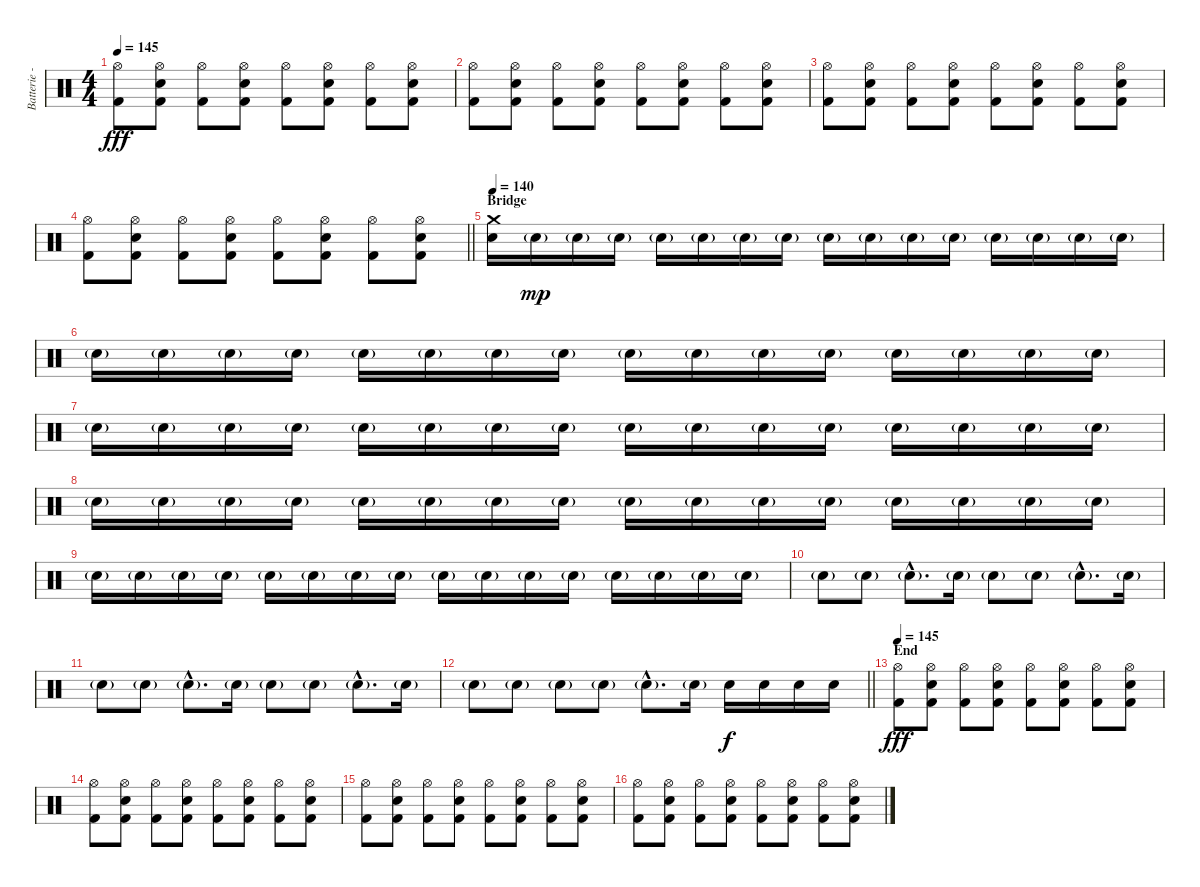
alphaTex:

\track ("Batterie - Larzon" "Batterie -") {instrument percussion}
\staff {score}
\articulation defaults
\ts (4 4)
\tempo 145
\clef neutral
\ks c
("Kick (hit) 2" "Hi-Hat (open)").8{dy fff} ("Kick (hit) 2" "Hi-Hat (open)" "Electric Snare (hit)").8 ("Kick (hit) 2" "Hi-Hat (open)").8 ("Kick (hit) 2" "Hi-Hat (open)" "Electric Snare (hit)").8 ("Kick (hit) 2" "Hi-Hat (open)").8 ("Kick (hit) 2" "Hi-Hat (open)" "Electric Snare (hit)").8 ("Kick (hit) 2" "Hi-Hat (open)").8 ("Kick (hit) 2" "Hi-Hat (open)" "Electric Snare (hit)").8 |
("Kick (hit) 2" "Hi-Hat (open)").8 ("Kick (hit) 2" "Hi-Hat (open)" "Electric Snare (hit)").8 ("Kick (hit) 2" "Hi-Hat (open)").8 ("Kick (hit) 2" "Hi-Hat (open)" "Electric Snare (hit)").8 ("Kick (hit) 2" "Hi-Hat (open)").8 ("Kick (hit) 2" "Hi-Hat (open)" "Electric Snare (hit)").8 ("Kick (hit) 2" "Hi-Hat (open)").8 ("Kick (hit) 2" "Hi-Hat (open)" "Electric Snare (hit)").8 |
("Kick (hit) 2" "Hi-Hat (open)").8 ("Kick (hit) 2" "Hi-Hat (open)" "Electric Snare (hit)").8 ("Kick (hit) 2" "Hi-Hat (open)").8 ("Kick (hit) 2" "Hi-Hat (open)" "Electric Snare (hit)").8 ("Kick (hit) 2" "Hi-Hat (open)").8 ("Kick (hit) 2" "Hi-Hat (open)" "Electric Snare (hit)").8 ("Kick (hit) 2" "Hi-Hat (open)").8 ("Kick (hit) 2" "Hi-Hat (open)" "Electric Snare (hit)").8 |
\barLineRight lightlight
("Kick (hit) 2" "Hi-Hat (open)").8 ("Kick (hit) 2" "Hi-Hat (open)" "Electric Snare (hit)").8 ("Kick (hit) 2" "Hi-Hat (open)").8 ("Kick (hit) 2" "Hi-Hat (open)" "Electric Snare (hit)").8 ("Kick (hit) 2" "Hi-Hat (open)").8 ("Kick (hit) 2" "Hi-Hat (open)" "Electric Snare (hit)").8 ("Kick (hit) 2" "Hi-Hat (open)").8 ("Kick (hit) 2" "Hi-Hat (open)" "Electric Snare (hit)").8 |
\section ("" "Bridge")
\tempo 140
("Crash medium (hit)" "Electric Snare (hit)").16 "Electric Snare (hit)"{g}.16{dy mp} "Electric Snare (hit)"{g}.16 "Electric Snare (hit)"{g}.16 "Electric Snare (hit)"{g}.16 "Electric Snare (hit)"{g}.16 "Electric Snare (hit)"{g}.16 "Electric Snare (hit)"{g}.16 "Electric Snare (hit)"{g}.16 "Electric Snare (hit)"{g}.16 "Electric Snare (hit)"{g}.16 "Electric Snare (hit)"{g}.16 "Electric Snare (hit)"{g}.16 "Electric Snare (hit)"{g}.16 "Electric Snare (hit)"{g}.16 "Electric Snare (hit)"{g}.16 |
"Electric Snare (hit)"{g}.16 "Electric Snare (hit)"{g}.16 "Electric Snare (hit)"{g}.16 "Electric Snare (hit)"{g}.16 "Electric Snare (hit)"{g}.16 "Electric Snare (hit)"{g}.16 "Electric Snare (hit)"{g}.16 "Electric Snare (hit)"{g}.16 "Electric Snare (hit)"{g}.16 "Electric Snare (hit)"{g}.16 "Electric Snare (hit)"{g}.16 "Electric Snare (hit)"{g}.16 "Electric Snare (hit)"{g}.16 "Electric Snare (hit)"{g}.16 "Electric Snare (hit)"{g}.16 "Electric Snare (hit)"{g}.16 |
"Electric Snare (hit)"{g}.16 "Electric Snare (hit)"{g}.16 "Electric Snare (hit)"{g}.16 "Electric Snare (hit)"{g}.16 "Electric Snare (hit)"{g}.16 "Electric Snare (hit)"{g}.16 "Electric Snare (hit)"{g}.16 "Electric Snare (hit)"{g}.16 "Electric Snare (hit)"{g}.16 "Electric Snare (hit)"{g}.16 "Electric Snare (hit)"{g}.16 "Electric Snare (hit)"{g}.16 "Electric Snare (hit)"{g}.16 "Electric Snare (hit)"{g}.16 "Electric Snare (hit)"{g}.16 "Electric Snare (hit)"{g}.16 |
"Electric Snare (hit)"{g}.16 "Electric Snare (hit)"{g}.16 "Electric Snare (hit)"{g}.16 "Electric Snare (hit)"{g}.16 "Electric Snare (hit)"{g}.16 "Electric Snare (hit)"{g}.16 "Electric Snare (hit)"{g}.16 "Electric Snare (hit)"{g}.16 "Electric Snare (hit)"{g}.16 "Electric Snare (hit)"{g}.16 "Electric Snare (hit)"{g}.16 "Electric Snare (hit)"{g}.16 "Electric Snare (hit)"{g}.16 "Electric Snare (hit)"{g}.16 "Electric Snare (hit)"{g}.16 "Electric Snare (hit)"{g}.16 |
"Electric Snare (hit)"{g}.16 "Electric Snare (hit)"{g}.16 "Electric Snare (hit)"{g}.16 "Electric Snare (hit)"{g}.16 "Electric Snare (hit)"{g}.16 "Electric Snare (hit)"{g}.16 "Electric Snare (hit)"{g}.16 "Electric Snare (hit)"{g}.16 "Electric Snare (hit)"{g}.16 "Electric Snare (hit)"{g}.16 "Electric Snare (hit)"{g}.16 "Electric Snare (hit)"{g}.16 "Electric Snare (hit)"{g}.16 "Electric Snare (hit)"{g}.16 "Electric Snare (hit)"{g}.16 "Electric Snare (hit)"{g}.16 |
"Electric Snare (hit)"{g}.8 "Electric Snare (hit)"{g}.8 "Electric Snare (hit)"{g hac}.8{d} "Electric Snare (hit)"{g}.16 "Electric Snare (hit)"{g}.8 "Electric Snare (hit)"{g}.8 "Electric Snare (hit)"{g hac}.8{d} "Electric Snare (hit)"{g}.16 |
"Electric Snare (hit)"{g}.8 "Electric Snare (hit)"{g}.8 "Electric Snare (hit)"{g hac}.8{d} "Electric Snare (hit)"{g}.16 "Electric Snare (hit)"{g}.8 "Electric Snare (hit)"{g}.8 "Electric Snare (hit)"{g hac}.8{d} "Electric Snare (hit)"{g}.16 |
\barLineRight lightlight "Electric Snare (hit)"{g}.8 "Electric Snare (hit)"{g}.8 "Electric Snare (hit)"{g}.8 "Electric Snare (hit)"{g}.8 "Electric Snare (hit)"{g hac}.8{d} "Electric Snare (hit)"{g}.16 "Electric Snare (hit)".16{dy f} "Electric Snare (hit)".16 "Electric Snare (hit)".16 "Electric Snare (hit)".16
|
\section ("" "End")
\tempo 145
("Kick (hit) 2" "Hi-Hat (open)").8{dy fff} ("Kick (hit) 2" "Hi-Hat (open)" "Electric Snare (hit)").8 ("Kick (hit) 2" "Hi-Hat (open)").8 ("Kick (hit) 2" "Hi-Hat (open)" "Electric Snare (hit)").8 ("Kick (hit) 2" "Hi-Hat (open)").8 ("Kick (hit) 2" "Hi-Hat (open)" "Electric Snare (hit)").8 ("Kick (hit) 2" "Hi-Hat (open)").8 ("Kick (hit) 2" "Hi-Hat (open)" "Electric Snare (hit)").8 |
("Kick (hit) 2" "Hi-Hat (open)").8 ("Kick (hit) 2" "Hi-Hat (open)" "Electric Snare (hit)").8 ("Kick (hit) 2" "Hi-Hat (open)").8 ("Kick (hit) 2" "Hi-Hat (open)" "Electric Snare (hit)").8 ("Kick (hit) 2" "Hi-Hat (open)").8 ("Kick (hit) 2" "Hi-Hat (open)" "Electric Snare (hit)").8 ("Kick (hit) 2" "Hi-Hat (open)").8 ("Kick (hit) 2" "Hi-Hat (open)" "Electric Snare (hit)").8 |
("Kick (hit) 2" "Hi-Hat (open)").8 ("Kick (hit) 2" "Hi-Hat (open)" "Electric Snare (hit)").8 ("Kick (hit) 2" "Hi-Hat (open)").8 ("Kick (hit) 2" "Hi-Hat (open)" "Electric Snare (hit)").8 ("Kick (hit) 2" "Hi-Hat (open)").8 ("Kick (hit) 2" "Hi-Hat (open)" "Electric Snare (hit)").8 ("Kick (hit) 2" "Hi-Hat (open)").8 ("Kick (hit) 2" "Hi-Hat (open)" "Electric Snare (hit)").8 |
("Kick (hit) 2" "Hi-Hat (open)").8 ("Kick (hit) 2" "Hi-Hat (open)" "Electric Snare (hit)").8 ("Kick (hit) 2" "Hi-Hat (open)").8 ("Kick (hit) 2" "Hi-Hat (open)" "Electric Snare (hit)").8 ("Kick (hit) 2" "Hi-Hat (open)").8 ("Kick (hit) 2" "Hi-Hat (open)" "Electric Snare (hit)").8 ("Kick (hit) 2" "Hi-Hat (open)").8 ("Kick (hit) 2" "Hi-Hat (open)" "Electric Snare (hit)").8
